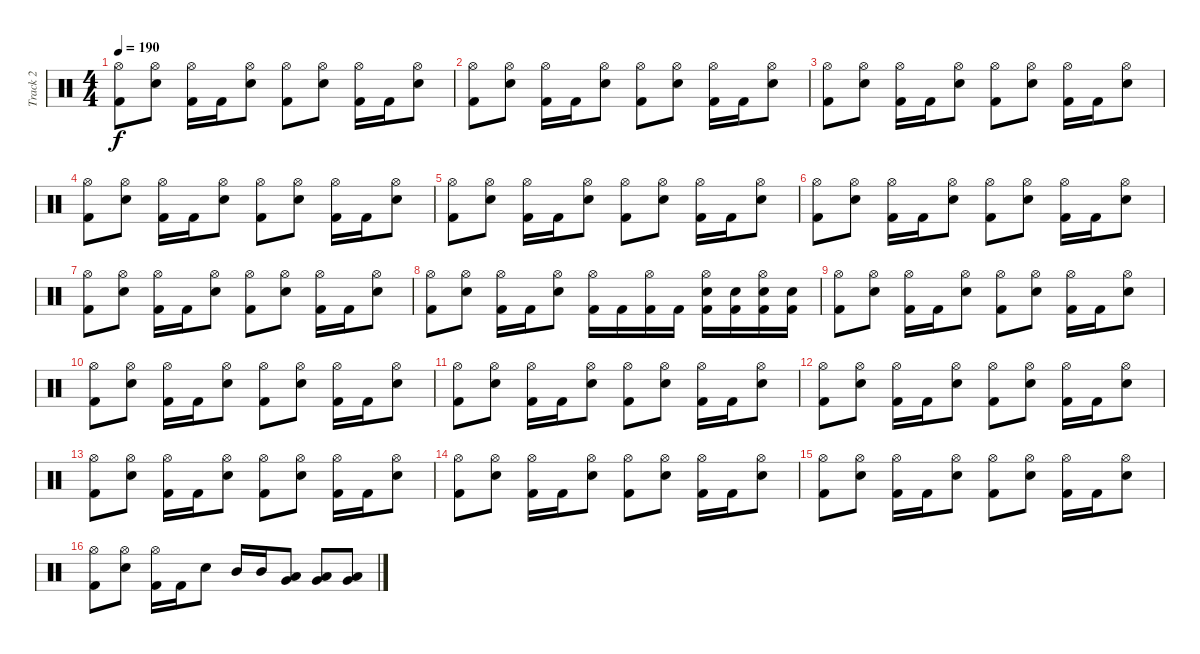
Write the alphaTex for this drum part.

\track ("Track 2" "Track 2") {instrument percussion}
\staff {score}
\articulation defaults
\ts (4 4)
\tempo 190
\clef neutral
\ks c
("Hi-Hat (open)" "Kick (hit) 2").8{dy f} ("Hi-Hat (open)" "Snare (hit) 2").8 ("Hi-Hat (open)" "Kick (hit) 2").16 "Kick (hit) 2".16 ("Hi-Hat (open)" "Snare (hit) 2").8 ("Hi-Hat (open)" "Kick (hit) 2").8 ("Hi-Hat (open)" "Snare (hit) 2").8 ("Hi-Hat (open)" "Kick (hit) 2").16 "Kick (hit) 2".16 ("Hi-Hat (open)" "Snare (hit) 2").8 |
("Hi-Hat (open)" "Kick (hit) 2").8 ("Hi-Hat (open)" "Snare (hit) 2").8 ("Hi-Hat (open)" "Kick (hit) 2").16 "Kick (hit) 2".16 ("Hi-Hat (open)" "Snare (hit) 2").8 ("Hi-Hat (open)" "Kick (hit) 2").8 ("Hi-Hat (open)" "Snare (hit) 2").8 ("Hi-Hat (open)" "Kick (hit) 2").16 "Kick (hit) 2".16 ("Hi-Hat (open)" "Snare (hit) 2").8 |
("Hi-Hat (open)" "Kick (hit) 2").8 ("Hi-Hat (open)" "Snare (hit) 2").8 ("Hi-Hat (open)" "Kick (hit) 2").16 "Kick (hit) 2".16 ("Hi-Hat (open)" "Snare (hit) 2").8 ("Hi-Hat (open)" "Kick (hit) 2").8 ("Hi-Hat (open)" "Snare (hit) 2").8 ("Hi-Hat (open)" "Kick (hit) 2").16 "Kick (hit) 2".16 ("Hi-Hat (open)" "Snare (hit) 2").8 |
("Hi-Hat (open)" "Kick (hit) 2").8 ("Hi-Hat (open)" "Snare (hit) 2").8 ("Hi-Hat (open)" "Kick (hit) 2").16 "Kick (hit) 2".16 ("Hi-Hat (open)" "Snare (hit) 2").8 ("Hi-Hat (open)" "Kick (hit) 2").8 ("Hi-Hat (open)" "Snare (hit) 2").8 ("Hi-Hat (open)" "Kick (hit) 2").16 "Kick (hit) 2".16 ("Hi-Hat (open)" "Snare (hit) 2").8 |
("Hi-Hat (open)" "Kick (hit) 2").8 ("Hi-Hat (open)" "Snare (hit) 2").8 ("Hi-Hat (open)" "Kick (hit) 2").16 "Kick (hit) 2".16 ("Hi-Hat (open)" "Snare (hit) 2").8 ("Hi-Hat (open)" "Kick (hit) 2").8 ("Hi-Hat (open)" "Snare (hit) 2").8 ("Hi-Hat (open)" "Kick (hit) 2").16 "Kick (hit) 2".16 ("Hi-Hat (open)" "Snare (hit) 2").8 |
("Hi-Hat (open)" "Kick (hit) 2").8 ("Hi-Hat (open)" "Snare (hit) 2").8 ("Hi-Hat (open)" "Kick (hit) 2").16 "Kick (hit) 2".16 ("Hi-Hat (open)" "Snare (hit) 2").8 ("Hi-Hat (open)" "Kick (hit) 2").8 ("Hi-Hat (open)" "Snare (hit) 2").8 ("Hi-Hat (open)" "Kick (hit) 2").16 "Kick (hit) 2".16 ("Hi-Hat (open)" "Snare (hit) 2").8 |
("Hi-Hat (open)" "Kick (hit) 2").8 ("Hi-Hat (open)" "Snare (hit) 2").8 ("Hi-Hat (open)" "Kick (hit) 2").16 "Kick (hit) 2".16 ("Hi-Hat (open)" "Snare (hit) 2").8 ("Hi-Hat (open)" "Kick (hit) 2").8 ("Hi-Hat (open)" "Snare (hit) 2").8 ("Hi-Hat (open)" "Kick (hit) 2").16 "Kick (hit) 2".16 ("Hi-Hat (open)" "Snare (hit) 2").8 |
("Hi-Hat (open)" "Kick (hit) 2").8 ("Hi-Hat (open)" "Snare (hit) 2").8 ("Hi-Hat (open)" "Kick (hit) 2").16 "Kick (hit) 2".16 ("Hi-Hat (open)" "Snare (hit) 2").8 ("Hi-Hat (open)" "Kick (hit) 2").16 "Kick (hit) 2".16 ("Hi-Hat (open)" "Kick (hit) 2").16 "Kick (hit) 2".16 ("Hi-Hat (open)" "Snare (hit) 2" "Kick (hit) 2").16 ("Snare (hit) 2" "Kick (hit) 2").16 ("Hi-Hat (open)" "Snare (hit) 2" "Kick (hit) 2").16 ("Snare (hit) 2" "Kick (hit) 2").16 |
("Hi-Hat (open)" "Kick (hit) 2").8 ("Hi-Hat (open)" "Snare (hit) 2").8 ("Hi-Hat (open)" "Kick (hit) 2").16 "Kick (hit) 2".16 ("Hi-Hat (open)" "Snare (hit) 2").8 ("Hi-Hat (open)" "Kick (hit) 2").8 ("Hi-Hat (open)" "Snare (hit) 2").8 ("Hi-Hat (open)" "Kick (hit) 2").16 "Kick (hit) 2".16 ("Hi-Hat (open)" "Snare (hit) 2").8 |
("Hi-Hat (open)" "Kick (hit) 2").8 ("Hi-Hat (open)" "Snare (hit) 2").8 ("Hi-Hat (open)" "Kick (hit) 2").16 "Kick (hit) 2".16 ("Hi-Hat (open)" "Snare (hit) 2").8 ("Hi-Hat (open)" "Kick (hit) 2").8 ("Hi-Hat (open)" "Snare (hit) 2").8 ("Hi-Hat (open)" "Kick (hit) 2").16 "Kick (hit) 2".16 ("Hi-Hat (open)" "Snare (hit) 2").8 |
("Hi-Hat (open)" "Kick (hit) 2").8 ("Hi-Hat (open)" "Snare (hit) 2").8 ("Hi-Hat (open)" "Kick (hit) 2").16 "Kick (hit) 2".16 ("Hi-Hat (open)" "Snare (hit) 2").8 ("Hi-Hat (open)" "Kick (hit) 2").8 ("Hi-Hat (open)" "Snare (hit) 2").8 ("Hi-Hat (open)" "Kick (hit) 2").16 "Kick (hit) 2".16 ("Hi-Hat (open)" "Snare (hit) 2").8 |
("Hi-Hat (open)" "Kick (hit) 2").8 ("Hi-Hat (open)" "Snare (hit) 2").8 ("Hi-Hat (open)" "Kick (hit) 2").16 "Kick (hit) 2".16 ("Hi-Hat (open)" "Snare (hit) 2").8 ("Hi-Hat (open)" "Kick (hit) 2").8 ("Hi-Hat (open)" "Snare (hit) 2").8 ("Hi-Hat (open)" "Kick (hit) 2").16 "Kick (hit) 2".16 ("Hi-Hat (open)" "Snare (hit) 2").8 |
("Hi-Hat (open)" "Kick (hit) 2").8 ("Hi-Hat (open)" "Snare (hit) 2").8 ("Hi-Hat (open)" "Kick (hit) 2").16 "Kick (hit) 2".16 ("Hi-Hat (open)" "Snare (hit) 2").8 ("Hi-Hat (open)" "Kick (hit) 2").8 ("Hi-Hat (open)" "Snare (hit) 2").8 ("Hi-Hat (open)" "Kick (hit) 2").16 "Kick (hit) 2".16 ("Hi-Hat (open)" "Snare (hit) 2").8 |
("Hi-Hat (open)" "Kick (hit) 2").8 ("Hi-Hat (open)" "Snare (hit) 2").8 ("Hi-Hat (open)" "Kick (hit) 2").16 "Kick (hit) 2".16 ("Hi-Hat (open)" "Snare (hit) 2").8 ("Hi-Hat (open)" "Kick (hit) 2").8 ("Hi-Hat (open)" "Snare (hit) 2").8 ("Hi-Hat (open)" "Kick (hit) 2").16 "Kick (hit) 2".16 ("Hi-Hat (open)" "Snare (hit) 2").8 |
("Hi-Hat (open)" "Kick (hit) 2").8 ("Hi-Hat (open)" "Snare (hit) 2").8 ("Hi-Hat (open)" "Kick (hit) 2").16 "Kick (hit) 2".16 ("Hi-Hat (open)" "Snare (hit) 2").8 ("Hi-Hat (open)" "Kick (hit) 2").8 ("Hi-Hat (open)" "Snare (hit) 2").8 ("Hi-Hat (open)" "Kick (hit) 2").16 "Kick (hit) 2".16 ("Hi-Hat (open)" "Snare (hit) 2").8 |
("Hi-Hat (open)" "Kick (hit) 2").8 ("Hi-Hat (open)" "Snare (hit) 2").8 ("Hi-Hat (open)" "Kick (hit) 2").16 "Kick (hit) 2".16 "Snare (hit) 2".8 "Mid Tom (hit)".16 "Mid Tom (hit)".16 ("Very Low Tom (hit)" "Low Tom (hit)").8 ("Low Tom (hit)" "Very Low Tom (hit)").8 ("Low Tom (hit)" "Very Low Tom (hit)").8
